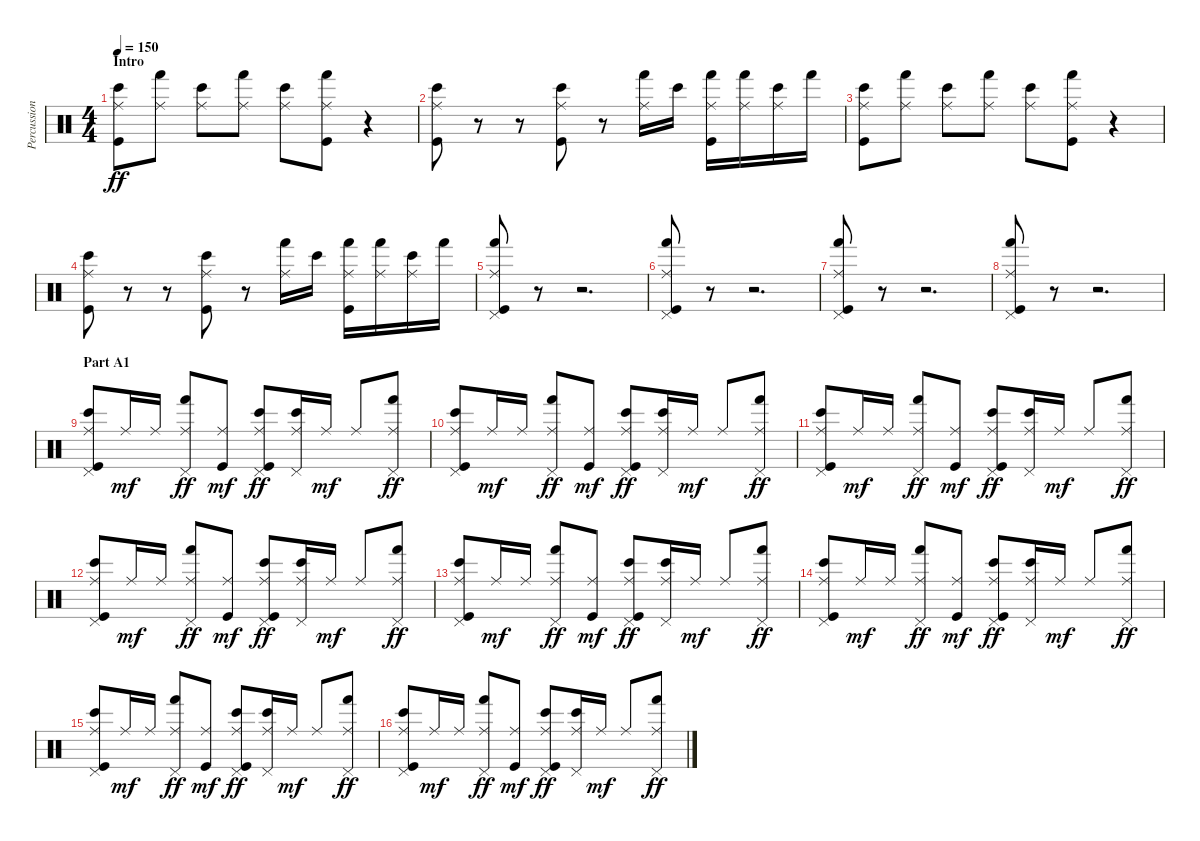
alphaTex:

\track ("Percussion" "Percussion") {instrument percussion}
\staff {score}
\articulation defaults
\ts (4 4)
\section ("" "Intro")
\tempo 150
\clef neutral
\ks c
("Ride (middle)" "Bongo High (hit)" "Kick (hit)").8{dy ff} ("Ride (middle)" "Hand (hit)").8 ("Ride (middle)" "Bongo High (hit)").8 ("Ride (middle)" "Hand (hit)").8 ("Ride (middle)" "Bongo High (hit)").8 ("Ride (middle)" "Hand (hit)" "Kick (hit)").8 r.4 |
("Ride (middle)" "Bongo High (hit)" "Kick (hit)").8 r.8 r.8 ("Ride (middle)" "Bongo High (hit)" "Kick (hit)").8 r.8 ("Ride (middle)" "Hand (hit)").16 "Bongo High (hit)".16 ("Ride (middle)" "Hand (hit)" "Kick (hit)").16 ("Ride (middle)" "Hand (hit)").16 ("Ride (middle)" "Bongo High (hit)").16 "Hand (hit)".16 |
("Ride (middle)" "Bongo High (hit)" "Kick (hit)").8 ("Ride (middle)" "Hand (hit)").8 ("Ride (middle)" "Bongo High (hit)").8 ("Ride (middle)" "Hand (hit)").8 ("Ride (middle)" "Bongo High (hit)").8 ("Ride (middle)" "Hand (hit)" "Kick (hit)").8 r.4 |
("Ride (middle)" "Bongo High (hit)" "Kick (hit)").8 r.8 r.8 ("Ride (middle)" "Bongo High (hit)" "Kick (hit)").8 r.8 ("Ride (middle)" "Hand (hit)").16 "Bongo High (hit)".16 ("Ride (middle)" "Hand (hit)" "Kick (hit)").16 ("Ride (middle)" "Hand (hit)").16 ("Ride (middle)" "Bongo High (hit)").16 "Hand (hit)".16 |
("Ride (middle)" "Pedal Hi-Hat (hit)" "Hand (hit)" "Kick (hit)").8 r.8 r.2{d} |
("Ride (middle)" "Pedal Hi-Hat (hit)" "Hand (hit)" "Kick (hit)").8 r.8 r.2{d} |
("Ride (middle)" "Pedal Hi-Hat (hit)" "Hand (hit)" "Kick (hit)").8 r.8 r.2{d} |
("Ride (middle)" "Pedal Hi-Hat (hit)" "Hand (hit)" "Kick (hit)").8 r.8 r.2{d} |
\section ("" "Part A1")
("Ride (middle)" "Pedal Hi-Hat (hit)" "Bongo High (hit)" "Kick (hit)").8 "Ride (middle)".16{dy mf} "Ride (middle)".16 ("Ride (middle)" "Pedal Hi-Hat (hit)" "Hand (hit)").8{dy ff} ("Ride (middle)" "Kick (hit)").8{dy mf} ("Ride (middle)" "Pedal Hi-Hat (hit)" "Bongo High (hit)" "Kick (hit)").8{dy ff} ("Ride (middle)" "Pedal Hi-Hat (hit)" "Bongo High (hit)").16 "Ride (middle)".16{dy mf} "Ride (middle)".8 ("Ride (middle)" "Pedal Hi-Hat (hit)" "Hand (hit)").8{dy ff} |
("Ride (middle)" "Pedal Hi-Hat (hit)" "Bongo High (hit)" "Kick (hit)").8 "Ride (middle)".16{dy mf} "Ride (middle)".16 ("Ride (middle)" "Pedal Hi-Hat (hit)" "Hand (hit)").8{dy ff} ("Ride (middle)" "Kick (hit)").8{dy mf} ("Ride (middle)" "Pedal Hi-Hat (hit)" "Bongo High (hit)" "Kick (hit)").8{dy ff} ("Ride (middle)" "Pedal Hi-Hat (hit)" "Bongo High (hit)").16 "Ride (middle)".16{dy mf} "Ride (middle)".8 ("Ride (middle)" "Pedal Hi-Hat (hit)" "Hand (hit)").8{dy ff} |
("Ride (middle)" "Pedal Hi-Hat (hit)" "Bongo High (hit)" "Kick (hit)").8 "Ride (middle)".16{dy mf} "Ride (middle)".16 ("Ride (middle)" "Pedal Hi-Hat (hit)" "Hand (hit)").8{dy ff} ("Ride (middle)" "Kick (hit)").8{dy mf} ("Ride (middle)" "Pedal Hi-Hat (hit)" "Bongo High (hit)" "Kick (hit)").8{dy ff} ("Ride (middle)" "Pedal Hi-Hat (hit)" "Bongo High (hit)").16 "Ride (middle)".16{dy mf} "Ride (middle)".8 ("Ride (middle)" "Pedal Hi-Hat (hit)" "Hand (hit)").8{dy ff} |
("Ride (middle)" "Pedal Hi-Hat (hit)" "Bongo High (hit)" "Kick (hit)").8 "Ride (middle)".16{dy mf} "Ride (middle)".16 ("Ride (middle)" "Pedal Hi-Hat (hit)" "Hand (hit)").8{dy ff} ("Ride (middle)" "Kick (hit)").8{dy mf} ("Ride (middle)" "Pedal Hi-Hat (hit)" "Bongo High (hit)" "Kick (hit)").8{dy ff} ("Ride (middle)" "Pedal Hi-Hat (hit)" "Bongo High (hit)").16 "Ride (middle)".16{dy mf} "Ride (middle)".8 ("Ride (middle)" "Pedal Hi-Hat (hit)" "Hand (hit)").8{dy ff} |
("Ride (middle)" "Pedal Hi-Hat (hit)" "Bongo High (hit)" "Kick (hit)").8 "Ride (middle)".16{dy mf} "Ride (middle)".16 ("Ride (middle)" "Pedal Hi-Hat (hit)" "Hand (hit)").8{dy ff} ("Ride (middle)" "Kick (hit)").8{dy mf} ("Ride (middle)" "Pedal Hi-Hat (hit)" "Bongo High (hit)" "Kick (hit)").8{dy ff} ("Ride (middle)" "Pedal Hi-Hat (hit)" "Bongo High (hit)").16 "Ride (middle)".16{dy mf} "Ride (middle)".8 ("Ride (middle)" "Pedal Hi-Hat (hit)" "Hand (hit)").8{dy ff} |
("Ride (middle)" "Pedal Hi-Hat (hit)" "Bongo High (hit)" "Kick (hit)").8 "Ride (middle)".16{dy mf} "Ride (middle)".16 ("Ride (middle)" "Pedal Hi-Hat (hit)" "Hand (hit)").8{dy ff} ("Ride (middle)" "Kick (hit)").8{dy mf} ("Ride (middle)" "Pedal Hi-Hat (hit)" "Bongo High (hit)" "Kick (hit)").8{dy ff} ("Ride (middle)" "Pedal Hi-Hat (hit)" "Bongo High (hit)").16 "Ride (middle)".16{dy mf} "Ride (middle)".8 ("Ride (middle)" "Pedal Hi-Hat (hit)" "Hand (hit)").8{dy ff} |
("Ride (middle)" "Pedal Hi-Hat (hit)" "Bongo High (hit)" "Kick (hit)").8 "Ride (middle)".16{dy mf} "Ride (middle)".16 ("Ride (middle)" "Pedal Hi-Hat (hit)" "Hand (hit)").8{dy ff} ("Ride (middle)" "Kick (hit)").8{dy mf} ("Ride (middle)" "Pedal Hi-Hat (hit)" "Bongo High (hit)" "Kick (hit)").8{dy ff} ("Ride (middle)" "Pedal Hi-Hat (hit)" "Bongo High (hit)").16 "Ride (middle)".16{dy mf} "Ride (middle)".8 ("Ride (middle)" "Pedal Hi-Hat (hit)" "Hand (hit)").8{dy ff} |
("Ride (middle)" "Pedal Hi-Hat (hit)" "Bongo High (hit)" "Kick (hit)").8 "Ride (middle)".16{dy mf} "Ride (middle)".16 ("Ride (middle)" "Pedal Hi-Hat (hit)" "Hand (hit)").8{dy ff} ("Ride (middle)" "Kick (hit)").8{dy mf} ("Ride (middle)" "Pedal Hi-Hat (hit)" "Bongo High (hit)" "Kick (hit)").8{dy ff} ("Ride (middle)" "Pedal Hi-Hat (hit)" "Bongo High (hit)").16 "Ride (middle)".16{dy mf} "Ride (middle)".8 ("Ride (middle)" "Pedal Hi-Hat (hit)" "Hand (hit)").8{dy ff}
